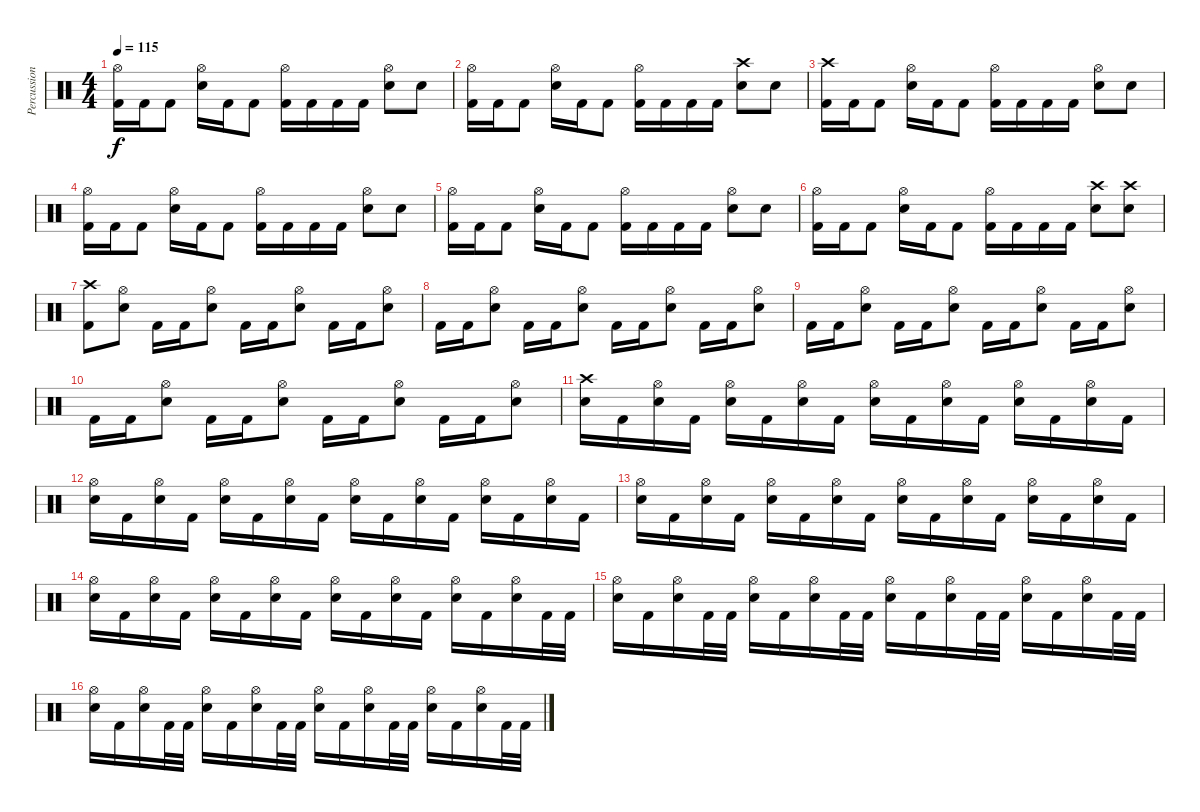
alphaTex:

\track ("Percussion" "Percussion") {instrument percussion}
\staff {score}
\articulation defaults
\ts (4 4)
\tempo 115
\clef neutral
\ks c
("Kick (hit) 2" "Hi-Hat (open)").16{dy f} "Kick (hit) 2".16 "Kick (hit) 2".8 ("Electric Snare (hit)" "Hi-Hat (open)").16 "Kick (hit) 2".16 "Kick (hit) 2".8 ("Kick (hit) 2" "Hi-Hat (open)").16 "Kick (hit) 2".16 "Kick (hit) 2".16 "Kick (hit) 2".16 ("Electric Snare (hit)" "Hi-Hat (open)").8 "Electric Snare (hit)".8 |
("Kick (hit) 2" "Hi-Hat (open)").16 "Kick (hit) 2".16 "Kick (hit) 2".8 ("Electric Snare (hit)" "Hi-Hat (open)").16 "Kick (hit) 2".16 "Kick (hit) 2".8 ("Kick (hit) 2" "Hi-Hat (open)").16 "Kick (hit) 2".16 "Kick (hit) 2".16 "Kick (hit) 2".16 ("Electric Snare (hit)" "Crash high (hit)").8 "Electric Snare (hit)".8 |
("Kick (hit) 2" "Crash high (hit)").16 "Kick (hit) 2".16 "Kick (hit) 2".8 ("Electric Snare (hit)" "Hi-Hat (open)").16 "Kick (hit) 2".16 "Kick (hit) 2".8 ("Kick (hit) 2" "Hi-Hat (open)").16 "Kick (hit) 2".16 "Kick (hit) 2".16 "Kick (hit) 2".16 ("Electric Snare (hit)" "Hi-Hat (open)").8 "Electric Snare (hit)".8 |
("Kick (hit) 2" "Hi-Hat (open)").16 "Kick (hit) 2".16 "Kick (hit) 2".8 ("Electric Snare (hit)" "Hi-Hat (open)").16 "Kick (hit) 2".16 "Kick (hit) 2".8 ("Kick (hit) 2" "Hi-Hat (open)").16 "Kick (hit) 2".16 "Kick (hit) 2".16 "Kick (hit) 2".16 ("Electric Snare (hit)" "Hi-Hat (open)").8 "Electric Snare (hit)".8 |
("Kick (hit) 2" "Hi-Hat (open)").16 "Kick (hit) 2".16 "Kick (hit) 2".8 ("Electric Snare (hit)" "Hi-Hat (open)").16 "Kick (hit) 2".16 "Kick (hit) 2".8 ("Kick (hit) 2" "Hi-Hat (open)").16 "Kick (hit) 2".16 "Kick (hit) 2".16 "Kick (hit) 2".16 ("Electric Snare (hit)" "Hi-Hat (open)").8 "Electric Snare (hit)".8 |
("Kick (hit) 2" "Hi-Hat (open)").16 "Kick (hit) 2".16 "Kick (hit) 2".8 ("Electric Snare (hit)" "Hi-Hat (open)").16 "Kick (hit) 2".16 "Kick (hit) 2".8 ("Kick (hit) 2" "Hi-Hat (open)").16 "Kick (hit) 2".16 "Kick (hit) 2".16 "Kick (hit) 2".16 ("Electric Snare (hit)" "Crash high (hit)").8 ("Electric Snare (hit)" "Crash high (hit)").8 |
("Kick (hit) 2" "Crash high (hit)").8 ("Electric Snare (hit)" "Hi-Hat (open)").8 "Kick (hit) 2".16 "Kick (hit) 2".16 ("Electric Snare (hit)" "Hi-Hat (open)").8 "Kick (hit) 2".16 "Kick (hit) 2".16 ("Electric Snare (hit)" "Hi-Hat (open)").8 "Kick (hit) 2".16 "Kick (hit) 2".16 ("Electric Snare (hit)" "Hi-Hat (open)").8 |
"Kick (hit) 2".16 "Kick (hit) 2".16 ("Electric Snare (hit)" "Hi-Hat (open)").8 "Kick (hit) 2".16 "Kick (hit) 2".16 ("Electric Snare (hit)" "Hi-Hat (open)").8 "Kick (hit) 2".16 "Kick (hit) 2".16 ("Electric Snare (hit)" "Hi-Hat (open)").8 "Kick (hit) 2".16 "Kick (hit) 2".16 ("Electric Snare (hit)" "Hi-Hat (open)").8 |
"Kick (hit) 2".16 "Kick (hit) 2".16 ("Electric Snare (hit)" "Hi-Hat (open)").8 "Kick (hit) 2".16 "Kick (hit) 2".16 ("Electric Snare (hit)" "Hi-Hat (open)").8 "Kick (hit) 2".16 "Kick (hit) 2".16 ("Electric Snare (hit)" "Hi-Hat (open)").8 "Kick (hit) 2".16 "Kick (hit) 2".16 ("Electric Snare (hit)" "Hi-Hat (open)").8 |
"Kick (hit) 2".16 "Kick (hit) 2".16 ("Electric Snare (hit)" "Hi-Hat (open)").8 "Kick (hit) 2".16 "Kick (hit) 2".16 ("Electric Snare (hit)" "Hi-Hat (open)").8 "Kick (hit) 2".16 "Kick (hit) 2".16 ("Electric Snare (hit)" "Hi-Hat (open)").8 "Kick (hit) 2".16 "Kick (hit) 2".16 ("Electric Snare (hit)" "Hi-Hat (open)").8 |
("Electric Snare (hit)" "Crash high (hit)").16 "Kick (hit) 2".16 ("Electric Snare (hit)" "Hi-Hat (open)").16 "Kick (hit) 2".16 ("Electric Snare (hit)" "Hi-Hat (open)").16 "Kick (hit) 2".16 ("Electric Snare (hit)" "Hi-Hat (open)").16 "Kick (hit) 2".16 ("Electric Snare (hit)" "Hi-Hat (open)").16 "Kick (hit) 2".16 ("Electric Snare (hit)" "Hi-Hat (open)").16 "Kick (hit) 2".16 ("Electric Snare (hit)" "Hi-Hat (open)").16 "Kick (hit) 2".16 ("Electric Snare (hit)" "Hi-Hat (open)").16 "Kick (hit) 2".16 |
("Electric Snare (hit)" "Hi-Hat (open)").16 "Kick (hit) 2".16 ("Electric Snare (hit)" "Hi-Hat (open)").16 "Kick (hit) 2".16 ("Electric Snare (hit)" "Hi-Hat (open)").16 "Kick (hit) 2".16 ("Electric Snare (hit)" "Hi-Hat (open)").16 "Kick (hit) 2".16 ("Electric Snare (hit)" "Hi-Hat (open)").16 "Kick (hit) 2".16 ("Electric Snare (hit)" "Hi-Hat (open)").16 "Kick (hit) 2".16 ("Electric Snare (hit)" "Hi-Hat (open)").16 "Kick (hit) 2".16 ("Electric Snare (hit)" "Hi-Hat (open)").16 "Kick (hit) 2".16 |
("Electric Snare (hit)" "Hi-Hat (open)").16 "Kick (hit) 2".16 ("Electric Snare (hit)" "Hi-Hat (open)").16 "Kick (hit) 2".16 ("Electric Snare (hit)" "Hi-Hat (open)").16 "Kick (hit) 2".16 ("Electric Snare (hit)" "Hi-Hat (open)").16 "Kick (hit) 2".16 ("Electric Snare (hit)" "Hi-Hat (open)").16 "Kick (hit) 2".16 ("Electric Snare (hit)" "Hi-Hat (open)").16 "Kick (hit) 2".16 ("Electric Snare (hit)" "Hi-Hat (open)").16 "Kick (hit) 2".16 ("Electric Snare (hit)" "Hi-Hat (open)").16 "Kick (hit) 2".16 |
("Electric Snare (hit)" "Hi-Hat (open)").16 "Kick (hit) 2".16 ("Electric Snare (hit)" "Hi-Hat (open)").16 "Kick (hit) 2".16 ("Electric Snare (hit)" "Hi-Hat (open)").16 "Kick (hit) 2".16 ("Electric Snare (hit)" "Hi-Hat (open)").16 "Kick (hit) 2".16 ("Electric Snare (hit)" "Hi-Hat (open)").16 "Kick (hit) 2".16 ("Electric Snare (hit)" "Hi-Hat (open)").16 "Kick (hit) 2".16 ("Electric Snare (hit)" "Hi-Hat (open)").16 "Kick (hit) 2".16 ("Electric Snare (hit)" "Hi-Hat (open)").16 "Kick (hit) 2".32 "Kick (hit) 2".32 |
("Electric Snare (hit)" "Hi-Hat (open)").16 "Kick (hit) 2".16 ("Electric Snare (hit)" "Hi-Hat (open)").16 "Kick (hit) 2".32 "Kick (hit) 2".32 ("Electric Snare (hit)" "Hi-Hat (open)").16 "Kick (hit) 2".16 ("Electric Snare (hit)" "Hi-Hat (open)").16 "Kick (hit) 2".32 "Kick (hit) 2".32 ("Electric Snare (hit)" "Hi-Hat (open)").16 "Kick (hit) 2".16 ("Electric Snare (hit)" "Hi-Hat (open)").16 "Kick (hit) 2".32 "Kick (hit) 2".32 ("Electric Snare (hit)" "Hi-Hat (open)").16 "Kick (hit) 2".16 ("Electric Snare (hit)" "Hi-Hat (open)").16 "Kick (hit) 2".32 "Kick (hit) 2".32 |
("Electric Snare (hit)" "Hi-Hat (open)").16 "Kick (hit) 2".16 ("Electric Snare (hit)" "Hi-Hat (open)").16 "Kick (hit) 2".32 "Kick (hit) 2".32 ("Electric Snare (hit)" "Hi-Hat (open)").16 "Kick (hit) 2".16 ("Electric Snare (hit)" "Hi-Hat (open)").16 "Kick (hit) 2".32 "Kick (hit) 2".32 ("Electric Snare (hit)" "Hi-Hat (open)").16 "Kick (hit) 2".16 ("Electric Snare (hit)" "Hi-Hat (open)").16 "Kick (hit) 2".32 "Kick (hit) 2".32 ("Electric Snare (hit)" "Hi-Hat (open)").16 "Kick (hit) 2".16 ("Electric Snare (hit)" "Hi-Hat (open)").16 "Kick (hit) 2".32 "Kick (hit) 2".32
